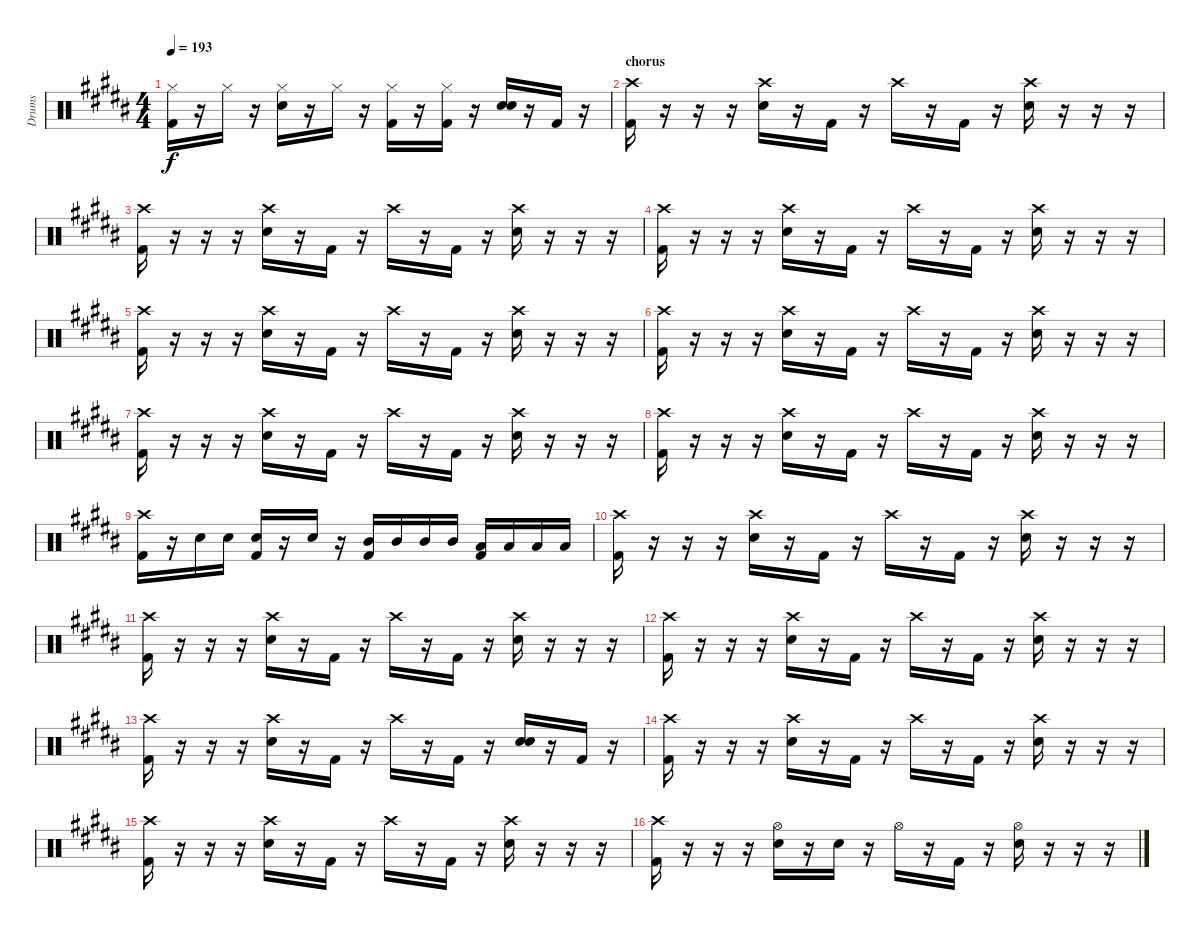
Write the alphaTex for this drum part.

\track ("Drums" "Drums") {instrument percussion}
\staff {score}
\articulation defaults
\ts (4 4)
\tempo 193
\clef neutral
\ks b
("Hi-Hat (closed)" "Kick (hit) 2").16{dy f} r.16 "Hi-Hat (closed)".16 r.16 ("Electric Snare (hit)" "Hi-Hat (closed)").16 r.16 "Hi-Hat (closed)".16 r.16 ("Hi-Hat (closed)" "Kick (hit) 2").16 r.16 ("Hi-Hat (closed)" "Kick (hit) 2").16 r.16 ("Electric Snare (hit)" "Electric Snare (hit)").16 r.16 "Kick (hit) 2".16 r.16 |
\section ("" "chorus")
("Crash high (hit)" "Kick (hit) 2").16 r.16 r.16 r.16 ("Electric Snare (hit)" "Crash high (hit)").16 r.16 "Kick (hit) 2".16 r.16 "Crash high (hit)".16 r.16 "Kick (hit) 2".16 r.16 ("Electric Snare (hit)" "Crash high (hit)").16 r.16 r.16 r.16 |
("Crash high (hit)" "Kick (hit) 2").16 r.16 r.16 r.16 ("Electric Snare (hit)" "Crash high (hit)").16 r.16 "Kick (hit) 2".16 r.16 "Crash high (hit)".16 r.16 "Kick (hit) 2".16 r.16 ("Electric Snare (hit)" "Crash high (hit)").16 r.16 r.16 r.16 |
("Crash high (hit)" "Kick (hit) 2").16 r.16 r.16 r.16 ("Electric Snare (hit)" "Crash high (hit)").16 r.16 "Kick (hit) 2".16 r.16 "Crash high (hit)".16 r.16 "Kick (hit) 2".16 r.16 ("Electric Snare (hit)" "Crash high (hit)").16 r.16 r.16 r.16 |
("Crash high (hit)" "Kick (hit) 2").16 r.16 r.16 r.16 ("Electric Snare (hit)" "Crash high (hit)").16 r.16 "Kick (hit) 2".16 r.16 "Crash high (hit)".16 r.16 "Kick (hit) 2".16 r.16 ("Electric Snare (hit)" "Crash high (hit)").16 r.16 r.16 r.16 |
("Crash high (hit)" "Kick (hit) 2").16 r.16 r.16 r.16 ("Electric Snare (hit)" "Crash high (hit)").16 r.16 "Kick (hit) 2".16 r.16 "Crash high (hit)".16 r.16 "Kick (hit) 2".16 r.16 ("Electric Snare (hit)" "Crash high (hit)").16 r.16 r.16 r.16 |
("Crash high (hit)" "Kick (hit) 2").16 r.16 r.16 r.16 ("Electric Snare (hit)" "Crash high (hit)").16 r.16 "Kick (hit) 2".16 r.16 "Crash high (hit)".16 r.16 "Kick (hit) 2".16 r.16 ("Electric Snare (hit)" "Crash high (hit)").16 r.16 r.16 r.16 |
("Crash high (hit)" "Kick (hit) 2").16 r.16 r.16 r.16 ("Electric Snare (hit)" "Crash high (hit)").16 r.16 "Kick (hit) 2".16 r.16 "Crash high (hit)".16 r.16 "Kick (hit) 2".16 r.16 ("Electric Snare (hit)" "Crash high (hit)").16 r.16 r.16 r.16 |
("Crash high (hit)" "Kick (hit) 2").16 r.16 "Electric Snare (hit)".16 "Electric Snare (hit)".16 ("Electric Snare (hit)" "Kick (hit) 2").16 r.16 "Electric Snare (hit)".16 r.16 ("Mid Tom (hit)" "Kick (hit) 2").16 "Mid Tom (hit)".16 "Mid Tom (hit)".16 "Mid Tom (hit)".16 ("Low Tom (hit)" "Kick (hit) 2").16 "Low Tom (hit)".16 "Low Tom (hit)".16 "Low Tom (hit)".16 |
("Crash high (hit)" "Kick (hit) 2").16 r.16 r.16 r.16 ("Electric Snare (hit)" "Crash high (hit)").16 r.16 "Kick (hit) 2".16 r.16 "Crash high (hit)".16 r.16 "Kick (hit) 2".16 r.16 ("Electric Snare (hit)" "Crash high (hit)").16 r.16 r.16 r.16 |
("Crash high (hit)" "Kick (hit) 2").16 r.16 r.16 r.16 ("Electric Snare (hit)" "Crash high (hit)").16 r.16 "Kick (hit) 2".16 r.16 "Crash high (hit)".16 r.16 "Kick (hit) 2".16 r.16 ("Electric Snare (hit)" "Crash high (hit)").16 r.16 r.16 r.16 |
("Crash high (hit)" "Kick (hit) 2").16 r.16 r.16 r.16 ("Electric Snare (hit)" "Crash high (hit)").16 r.16 "Kick (hit) 2".16 r.16 "Crash high (hit)".16 r.16 "Kick (hit) 2".16 r.16 ("Electric Snare (hit)" "Crash high (hit)").16 r.16 r.16 r.16 |
("Crash high (hit)" "Kick (hit) 2").16 r.16 r.16 r.16 ("Electric Snare (hit)" "Crash high (hit)").16 r.16 "Kick (hit) 2".16 r.16 "Crash high (hit)".16 r.16 "Kick (hit) 2".16 r.16 ("Electric Snare (hit)" "Electric Snare (hit)").16 r.16 "Kick (hit) 2".16 r.16 |
("Crash high (hit)" "Kick (hit) 2").16 r.16 r.16 r.16 ("Electric Snare (hit)" "Crash high (hit)").16 r.16 "Kick (hit) 2".16 r.16 "Crash high (hit)".16 r.16 "Kick (hit) 2".16 r.16 ("Electric Snare (hit)" "Crash high (hit)").16 r.16 r.16 r.16 |
("Crash high (hit)" "Kick (hit) 2").16 r.16 r.16 r.16 ("Electric Snare (hit)" "Crash high (hit)").16 r.16 "Kick (hit) 2".16 r.16 "Crash high (hit)".16 r.16 "Kick (hit) 2".16 r.16 ("Electric Snare (hit)" "Crash high (hit)").16 r.16 r.16 r.16 |
("Crash high (hit)" "Kick (hit) 2").16 r.16 r.16 r.16 ("Electric Snare (hit)" "Hi-Hat (open)").16 r.16 "Electric Snare (hit)".16 r.16 "Hi-Hat (open)".16 r.16 "Kick (hit) 2".16 r.16 ("Electric Snare (hit)" "Hi-Hat (open)").16 r.16 r.16 r.16
